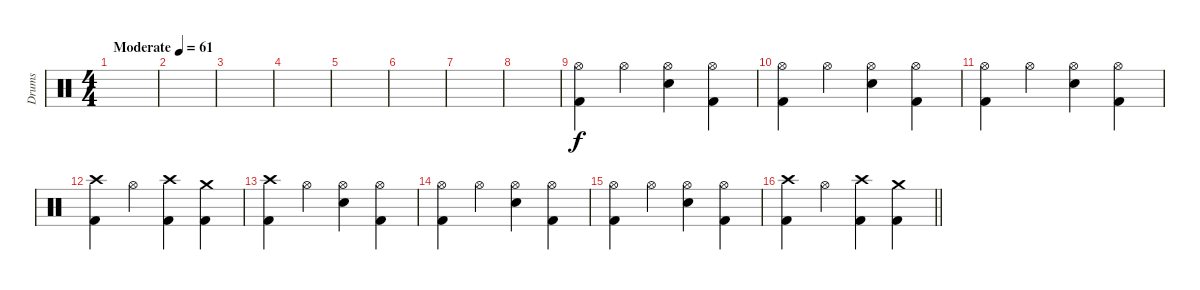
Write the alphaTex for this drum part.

\track ("Drums" "Drums") {instrument percussion}
\staff {score}
\articulation defaults
\ts (4 4)
\tempo (61 "Moderate")
\clef neutral
\ks c
|
|
|
|
|
|
|
|
("Hi-Hat (open)" "Kick (hit) 2").4 "Hi-Hat (open)".4 ("Hi-Hat (open)" "Electric Snare (hit)").4 ("Hi-Hat (open)" "Kick (hit) 2").4 |
("Hi-Hat (open)" "Kick (hit) 2").4 "Hi-Hat (open)".4 ("Hi-Hat (open)" "Electric Snare (hit)").4 ("Hi-Hat (open)" "Kick (hit) 2").4 |
("Hi-Hat (open)" "Kick (hit) 2").4 "Hi-Hat (open)".4 ("Hi-Hat (open)" "Electric Snare (hit)").4 ("Hi-Hat (open)" "Kick (hit) 2").4 |
("Crash high (hit)" "Kick (hit) 2").4 "Hi-Hat (open)".4 ("Crash high (hit)" "Kick (hit) 2").4 ("Crash medium (hit)" "Kick (hit) 2").4 |
("Crash high (hit)" "Kick (hit) 2").4 "Hi-Hat (open)".4 ("Hi-Hat (open)" "Electric Snare (hit)").4 ("Hi-Hat (open)" "Kick (hit) 2").4 |
("Hi-Hat (open)" "Kick (hit) 2").4 "Hi-Hat (open)".4 ("Hi-Hat (open)" "Electric Snare (hit)").4 ("Hi-Hat (open)" "Kick (hit) 2").4 |
("Hi-Hat (open)" "Kick (hit) 2").4 "Hi-Hat (open)".4 ("Hi-Hat (open)" "Electric Snare (hit)").4 ("Hi-Hat (open)" "Kick (hit) 2").4 |
\barLineRight lightlight
("Crash high (hit)" "Kick (hit) 2").4 "Hi-Hat (open)".4 ("Crash high (hit)" "Kick (hit) 2").4 ("Crash medium (hit)" "Kick (hit) 2").4
